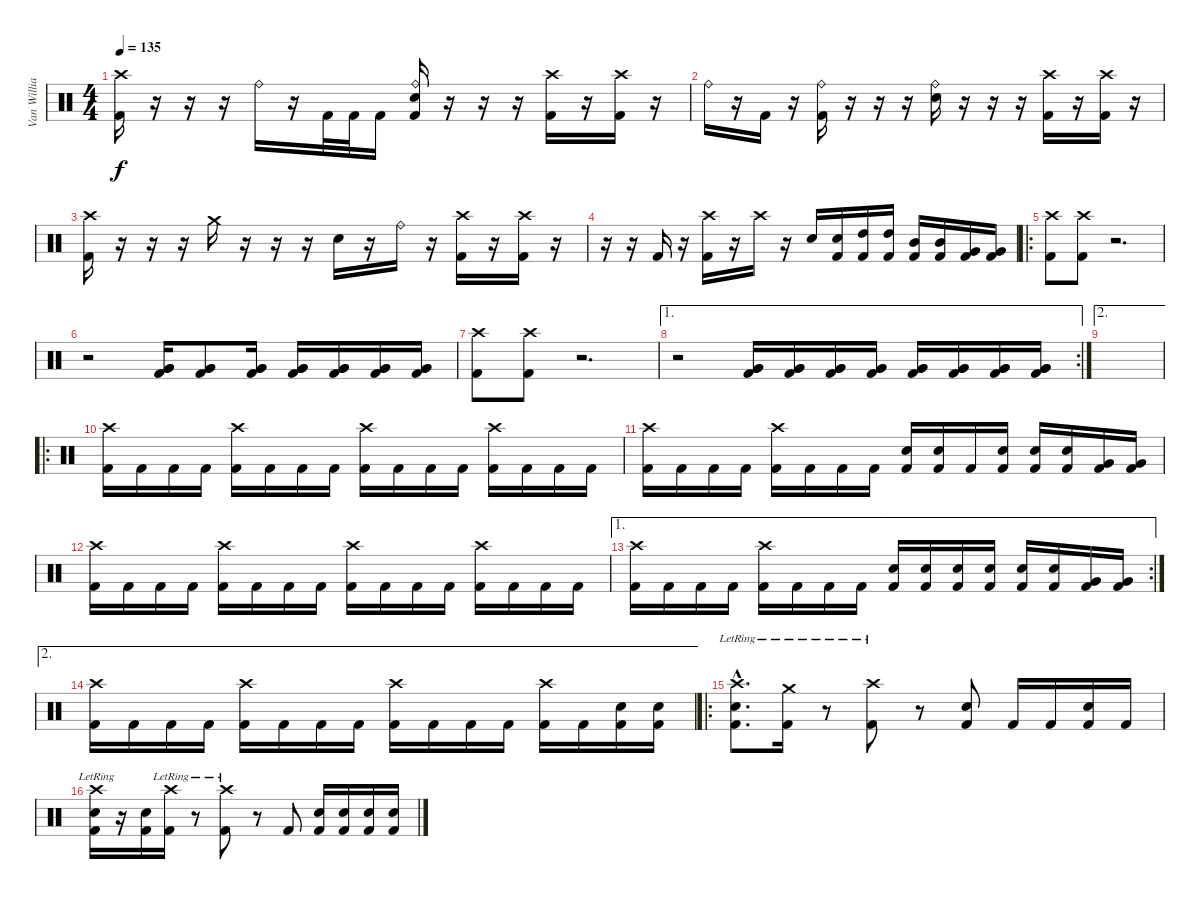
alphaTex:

\track ("Van Williams" "Van Willia") {instrument percussion}
\staff {score}
\articulation defaults
\ts (4 4)
\tempo 135
\clef neutral
\ks c
("Crash high (hit)" "Kick (hit) 2").16{dy f} r.16 r.16 r.16 "Ride (bell)".16 r.16 "Kick (hit) 2".32 "Kick (hit) 2".32 "Kick (hit) 2".16 ("Ride (bell)" "Kick (hit) 2" "Electric Snare (hit)").16 r.16 r.16 r.16 ("Crash high (hit)" "Kick (hit) 2").16 r.16 ("Crash high (hit)" "Kick (hit) 2").16 r.16 |
"Ride (bell)".16 r.16 "Kick (hit) 2".16 r.16 ("Ride (bell)" "Kick (hit) 2").16 r.16 r.16 r.16 ("Ride (bell)" "Electric Snare (hit)").16 r.16 r.16 r.16 ("Crash high (hit)" "Kick (hit) 2").16 r.16 ("Crash high (hit)" "Kick (hit) 2").16 r.16 |
("Crash high (hit)" "Kick (hit) 2").16 r.16 r.16 r.16 "Crash medium (hit)".16 r.16 r.16 r.16 "Electric Snare (hit)".16 r.16 "Ride (bell)".16 r.16 ("Crash high (hit)" "Kick (hit) 2").16 r.16 ("Crash high (hit)" "Kick (hit) 2").16 r.16 |
r.16 r.16 "Kick (hit) 2".16 r.16 ("Crash high (hit)" "Kick (hit) 2").16 r.16 "Crash high (hit)".16 r.16 "Electric Snare (hit)".16 ("Kick (hit) 2" "Electric Snare (hit)").16 ("Kick (hit) 2" "High Tom (hit)").16 ("Kick (hit) 2" "High Tom (hit)").16 ("Kick (hit) 2" "Mid Tom (hit)").16 ("Kick (hit) 2" "Mid Tom (hit)").16 ("Kick (hit) 2" "Very Low Tom (hit)").16 ("Kick (hit) 2" "Very Low Tom (hit)").16 |
\ro
("Crash high (hit)" "Kick (hit) 2").8 ("Crash high (hit)" "Kick (hit) 2").8 r.2{d} |
r.2 ("Kick (hit) 2" "Very Low Tom (hit)" "Very Low Tom (hit)").16 ("Kick (hit) 2" "Very Low Tom (hit)" "Very Low Tom (hit)").8 ("Kick (hit) 2" "Very Low Tom (hit)" "Very Low Tom (hit)").16 ("Kick (hit) 2" "Very Low Tom (hit)" "Very Low Tom (hit)").16 ("Kick (hit) 2" "Very Low Tom (hit)" "Very Low Tom (hit)").16 ("Kick (hit) 2" "Very Low Tom (hit)" "Very Low Tom (hit)").16 ("Kick (hit) 2" "Very Low Tom (hit)" "Very Low Tom (hit)").16 |
("Crash high (hit)" "Kick (hit) 2").8 ("Crash high (hit)" "Kick (hit) 2").8 r.2{d} |
\ae 1
\rc 2
r.2 ("Kick (hit) 2" "Very Low Tom (hit)" "Very Low Tom (hit)").16 ("Kick (hit) 2" "Very Low Tom (hit)" "Very Low Tom (hit)").16 ("Kick (hit) 2" "Very Low Tom (hit)" "Very Low Tom (hit)").16 ("Kick (hit) 2" "Very Low Tom (hit)" "Very Low Tom (hit)").16 ("Kick (hit) 2" "Very Low Tom (hit)" "Very Low Tom (hit)").16 ("Kick (hit) 2" "Very Low Tom (hit)" "Very Low Tom (hit)").16 ("Kick (hit) 2" "Very Low Tom (hit)" "Very Low Tom (hit)").16 ("Kick (hit) 2" "Very Low Tom (hit)" "Very Low Tom (hit)").16 |
\ae 2
|
\ro
("Crash high (hit)" "Kick (hit) 2").16 "Kick (hit) 2".16 "Kick (hit) 2".16 "Kick (hit) 2".16 ("Crash high (hit)" "Kick (hit) 2").16 "Kick (hit) 2".16 "Kick (hit) 2".16 "Kick (hit) 2".16 ("Crash high (hit)" "Kick (hit) 2").16 "Kick (hit) 2".16 "Kick (hit) 2".16 "Kick (hit) 2".16 ("Crash high (hit)" "Kick (hit) 2").16 "Kick (hit) 2".16 "Kick (hit) 2".16 "Kick (hit) 2".16 |
("Crash high (hit)" "Kick (hit) 2").16 "Kick (hit) 2".16 "Kick (hit) 2".16 "Kick (hit) 2".16 ("Crash high (hit)" "Kick (hit) 2").16 "Kick (hit) 2".16 "Kick (hit) 2".16 "Kick (hit) 2".16 ("Kick (hit) 2" "Electric Snare (hit)").16 ("Kick (hit) 2" "Electric Snare (hit)").16 "Kick (hit) 2".16 ("Kick (hit) 2" "Electric Snare (hit)").16 ("Kick (hit) 2" "Electric Snare (hit)").16 ("Kick (hit) 2" "Electric Snare (hit)").16 ("Kick (hit) 2" "Very Low Tom (hit)").16 ("Kick (hit) 2" "Very Low Tom (hit)").16 |
("Crash high (hit)" "Kick (hit) 2").16 "Kick (hit) 2".16 "Kick (hit) 2".16 "Kick (hit) 2".16 ("Crash high (hit)" "Kick (hit) 2").16 "Kick (hit) 2".16 "Kick (hit) 2".16 "Kick (hit) 2".16 ("Crash high (hit)" "Kick (hit) 2").16 "Kick (hit) 2".16 "Kick (hit) 2".16 "Kick (hit) 2".16 ("Crash high (hit)" "Kick (hit) 2").16 "Kick (hit) 2".16 "Kick (hit) 2".16 "Kick (hit) 2".16 |
\ae 1
\rc 2
("Crash high (hit)" "Kick (hit) 2").16 "Kick (hit) 2".16 "Kick (hit) 2".16 "Kick (hit) 2".16 ("Crash high (hit)" "Kick (hit) 2").16 "Kick (hit) 2".16 "Kick (hit) 2".16 "Kick (hit) 2".16 ("Kick (hit) 2" "Electric Snare (hit)").16 ("Kick (hit) 2" "Electric Snare (hit)").16 ("Kick (hit) 2" "Electric Snare (hit)").16 ("Kick (hit) 2" "Electric Snare (hit)").16 ("Kick (hit) 2" "Electric Snare (hit)").16 ("Kick (hit) 2" "Electric Snare (hit)").16 ("Kick (hit) 2" "Very Low Tom (hit)").16 ("Kick (hit) 2" "Very Low Tom (hit)").16 |
\ae 2
("Crash high (hit)" "Kick (hit) 2").16 "Kick (hit) 2".16 "Kick (hit) 2".16 "Kick (hit) 2".16 ("Crash high (hit)" "Kick (hit) 2").16 "Kick (hit) 2".16 "Kick (hit) 2".16 "Kick (hit) 2".16 ("Crash high (hit)" "Kick (hit) 2").16 "Kick (hit) 2".16 "Kick (hit) 2".16 "Kick (hit) 2".16 ("Crash high (hit)" "Kick (hit) 2").16 "Kick (hit) 2".16 ("Kick (hit) 2" "Electric Snare (hit)").16 ("Kick (hit) 2" "Electric Snare (hit)").16 |
\ro
("Crash high (hit)"{lr} "Kick (hit) 2"{hac} "Electric Snare (hit)"{hac}).8{d} ("Crash medium (hit)"{lr} "Kick (hit) 2").16 r.8 ("Crash high (hit)"{lr} "Kick (hit) 2").8 r.8 ("Kick (hit) 2" "Electric Snare (hit)").8 "Kick (hit) 2".16 "Kick (hit) 2".16 ("Kick (hit) 2" "Electric Snare (hit)").16 "Kick (hit) 2".16 |
("Crash high (hit)"{lr} "Kick (hit) 2" "Electric Snare (hit)").16 r.16 ("Kick (hit) 2" "Electric Snare (hit)").16 ("Crash high (hit)"{lr} "Kick (hit) 2").16 r.8 ("Crash high (hit)"{lr} "Kick (hit) 2").8 r.8 "Kick (hit) 2".8 ("Kick (hit) 2" "Electric Snare (hit)").16 ("Kick (hit) 2" "Electric Snare (hit)").16 ("Kick (hit) 2" "Electric Snare (hit)").16 ("Kick (hit) 2" "Electric Snare (hit)").16
